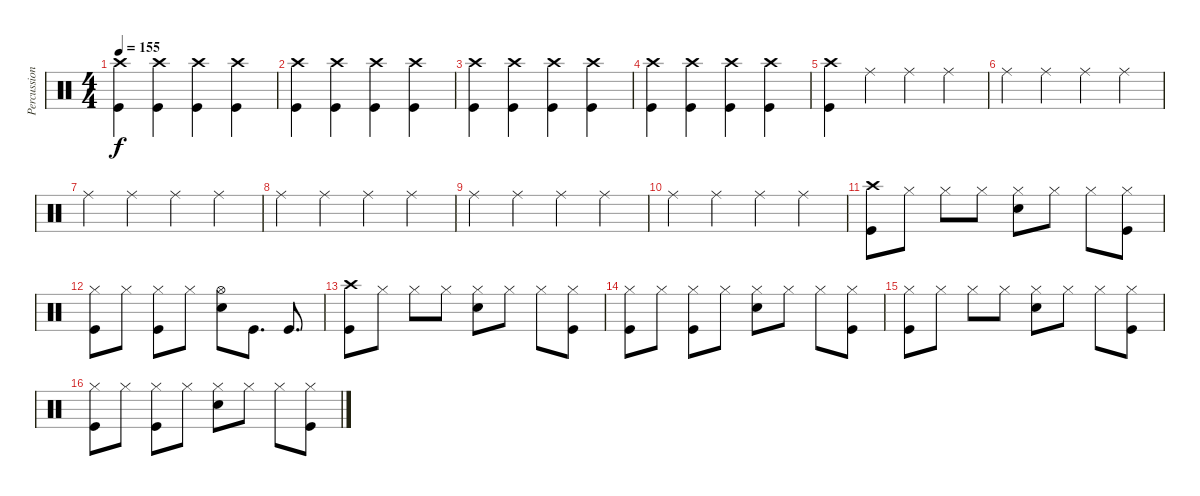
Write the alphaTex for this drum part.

\track ("Percussion" "Percussion") {instrument percussion}
\staff {score}
\articulation defaults
\ts (4 4)
\tempo 155
\clef neutral
\ks c
("Kick (hit)" "Crash high (hit)").4{dy f} ("Crash high (hit)" "Kick (hit)").4 ("Crash high (hit)" "Kick (hit)").4 ("Crash high (hit)" "Kick (hit)").4 |
("Kick (hit)" "Crash high (hit)").4 ("Crash high (hit)" "Kick (hit)").4 ("Crash high (hit)" "Kick (hit)").4 ("Crash high (hit)" "Kick (hit)").4 |
("Kick (hit)" "Crash high (hit)").4 ("Crash high (hit)" "Kick (hit)").4 ("Crash high (hit)" "Kick (hit)").4 ("Crash high (hit)" "Kick (hit)").4 |
("Kick (hit)" "Crash high (hit)").4 ("Crash high (hit)" "Kick (hit)").4 ("Crash high (hit)" "Kick (hit)").4 ("Crash high (hit)" "Kick (hit)").4 |
("Kick (hit)" "Crash high (hit)").4 "Ride (middle)".4 "Ride (middle)".4 "Ride (middle)".4 |
"Ride (middle)".4 "Ride (middle)".4 "Ride (middle)".4 "Ride (middle)".4 |
"Ride (middle)".4 "Ride (middle)".4 "Ride (middle)".4 "Ride (middle)".4 |
"Ride (middle)".4 "Ride (middle)".4 "Ride (middle)".4 "Ride (middle)".4 |
"Ride (middle)".4 "Ride (middle)".4 "Ride (middle)".4 "Ride (middle)".4 |
"Ride (middle)".4 "Ride (middle)".4 "Ride (middle)".4 "Ride (middle)".4 |
("Kick (hit)" "Crash high (hit)").8 "Hi-Hat (closed)".8 "Hi-Hat (closed)".8 "Hi-Hat (closed)".8 ("Hi-Hat (closed)" "Snare (hit) 2").8 "Hi-Hat (closed)".8 "Hi-Hat (closed)".8 ("Hi-Hat (closed)" "Kick (hit)").8 |
("Kick (hit)" "Hi-Hat (closed)").8 "Hi-Hat (closed)".8 ("Hi-Hat (closed)" "Kick (hit)").8 "Hi-Hat (closed)".8 ("Hi-Hat (open)" "Snare (hit) 2").8 "Kick (hit)".8{d} "Kick (hit)".8{d} |
("Kick (hit)" "Crash high (hit)").8 "Hi-Hat (closed)".8 "Hi-Hat (closed)".8 "Hi-Hat (closed)".8 ("Hi-Hat (closed)" "Snare (hit) 2").8 "Hi-Hat (closed)".8 "Hi-Hat (closed)".8 ("Hi-Hat (closed)" "Kick (hit)").8 |
("Kick (hit)" "Hi-Hat (closed)").8 "Hi-Hat (closed)".8 ("Hi-Hat (closed)" "Kick (hit)").8 "Hi-Hat (closed)".8 ("Hi-Hat (closed)" "Snare (hit) 2").8 "Hi-Hat (closed)".8 "Hi-Hat (closed)".8 ("Hi-Hat (closed)" "Kick (hit)").8 |
("Kick (hit)" "Hi-Hat (closed)").8 "Hi-Hat (closed)".8 "Hi-Hat (closed)".8 "Hi-Hat (closed)".8 ("Hi-Hat (closed)" "Snare (hit) 2").8 "Hi-Hat (closed)".8 "Hi-Hat (closed)".8 ("Hi-Hat (closed)" "Kick (hit)").8 |
("Kick (hit)" "Hi-Hat (closed)").8 "Hi-Hat (closed)".8 ("Hi-Hat (closed)" "Kick (hit)").8 "Hi-Hat (closed)".8 ("Hi-Hat (closed)" "Snare (hit) 2").8 "Hi-Hat (closed)".8 "Hi-Hat (closed)".8 ("Hi-Hat (closed)" "Kick (hit)").8
